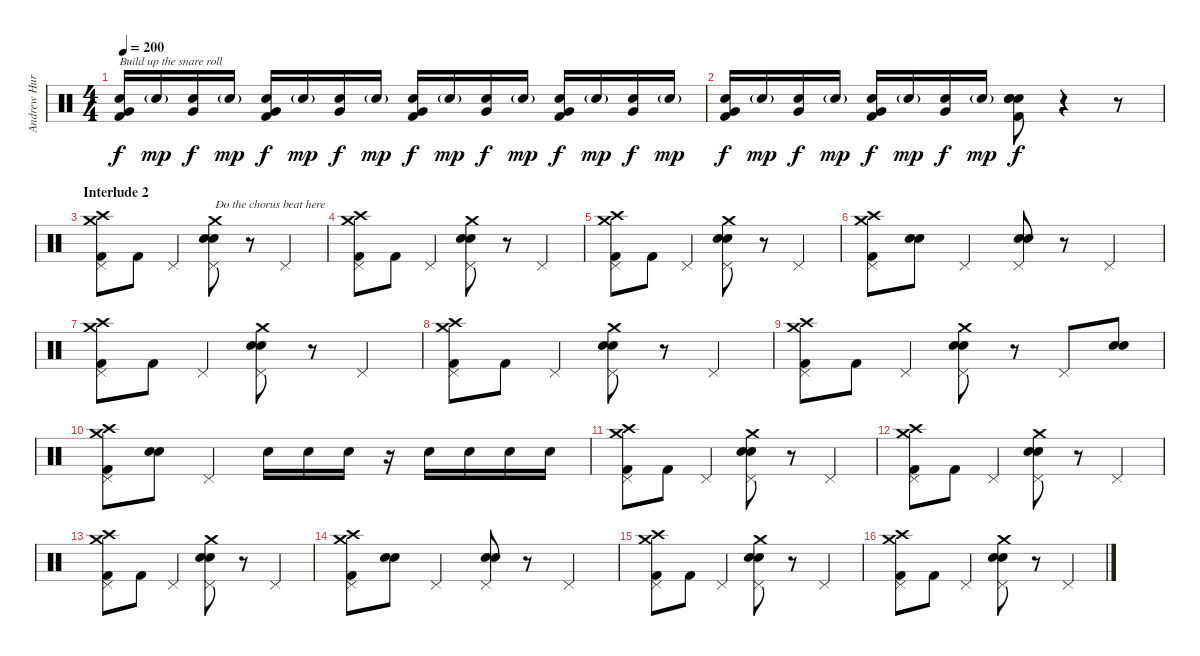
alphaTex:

\track ("Andrew Hurley (Drums)" "Andrew Hur") {instrument percussion}
\staff {score}
\articulation defaults
\ts (4 4)
\tempo 200
\clef neutral
\ks c
("Electric Snare (hit)" "Very Low Tom (hit)" "Kick (hit) 2").16{txt "Build up the snare roll" dy f volume 15} "Electric Snare (hit)"{g}.16{dy mp} ("Electric Snare (hit)" "Very Low Tom (hit)").16{dy f} "Electric Snare (hit)"{g}.16{dy mp} ("Electric Snare (hit)" "Very Low Tom (hit)" "Kick (hit) 2").16{dy f} "Electric Snare (hit)"{g}.16{dy mp} ("Electric Snare (hit)" "Very Low Tom (hit)").16{dy f} "Electric Snare (hit)"{g}.16{dy mp} ("Electric Snare (hit)" "Very Low Tom (hit)" "Kick (hit) 2").16{dy f} "Electric Snare (hit)"{g}.16{dy mp} ("Electric Snare (hit)" "Very Low Tom (hit)").16{dy f} "Electric Snare (hit)"{g}.16{dy mp} ("Electric Snare (hit)" "Very Low Tom (hit)" "Kick (hit) 2").16{dy f} "Electric Snare (hit)"{g}.16{dy mp} ("Electric Snare (hit)" "Very Low Tom (hit)").16{dy f} "Electric Snare (hit)"{g}.16{dy mp} |
("Electric Snare (hit)" "Very Low Tom (hit)" "Kick (hit) 2").16{dy f} "Electric Snare (hit)"{g}.16{dy mp} ("Electric Snare (hit)" "Very Low Tom (hit)").16{dy f} "Electric Snare (hit)"{g}.16{dy mp} ("Electric Snare (hit)" "Very Low Tom (hit)" "Kick (hit) 2").16{dy f} "Electric Snare (hit)"{g}.16{dy mp} ("Electric Snare (hit)" "Very Low Tom (hit)").16{dy f} "Electric Snare (hit)"{g}.16{dy mp} ("Hand Clap (hit)" "Electric Snare (hit)" "Snare (hit) 2" "Kick (hit) 2").8{dy f} r.4 r.8 |
\section ("" "Interlude 2")
("Kick (hit) 2" "Pedal Hi-Hat (hit)" "Crash high (hit)" "Crash medium (hit)").8 "Kick (hit) 2".8 "Pedal Hi-Hat (hit)".4 ("Hand Clap (hit)" "Electric Snare (hit)" "Pedal Hi-Hat (hit)" "Crash medium (hit)").8{txt "Do the chorus beat here"} r.8 "Pedal Hi-Hat (hit)".4 |
("Kick (hit) 2" "Pedal Hi-Hat (hit)" "Crash high (hit)" "Crash medium (hit)").8 "Kick (hit) 2".8 "Pedal Hi-Hat (hit)".4 ("Hand Clap (hit)" "Electric Snare (hit)" "Pedal Hi-Hat (hit)" "Crash medium (hit)").8 r.8 "Pedal Hi-Hat (hit)".4 |
("Kick (hit) 2" "Pedal Hi-Hat (hit)" "Crash high (hit)" "Crash medium (hit)").8 "Kick (hit) 2".8 "Pedal Hi-Hat (hit)".4 ("Hand Clap (hit)" "Electric Snare (hit)" "Pedal Hi-Hat (hit)" "Crash medium (hit)").8 r.8 "Pedal Hi-Hat (hit)".4 |
("Kick (hit) 2" "Pedal Hi-Hat (hit)" "Crash high (hit)" "Crash medium (hit)").8 ("Hand Clap (hit)" "Electric Snare (hit)").8 "Pedal Hi-Hat (hit)".4 ("Hand Clap (hit)" "Electric Snare (hit)" "Pedal Hi-Hat (hit)").8 r.8 "Pedal Hi-Hat (hit)".4 |
("Kick (hit) 2" "Pedal Hi-Hat (hit)" "Crash high (hit)" "Crash medium (hit)").8 "Kick (hit) 2".8 "Pedal Hi-Hat (hit)".4 ("Hand Clap (hit)" "Electric Snare (hit)" "Pedal Hi-Hat (hit)" "Crash medium (hit)").8 r.8 "Pedal Hi-Hat (hit)".4 |
("Kick (hit) 2" "Pedal Hi-Hat (hit)" "Crash high (hit)" "Crash medium (hit)").8 "Kick (hit) 2".8 "Pedal Hi-Hat (hit)".4 ("Hand Clap (hit)" "Electric Snare (hit)" "Pedal Hi-Hat (hit)" "Crash medium (hit)").8 r.8 "Pedal Hi-Hat (hit)".4 |
("Kick (hit) 2" "Pedal Hi-Hat (hit)" "Crash high (hit)" "Crash medium (hit)").8 "Kick (hit) 2".8 "Pedal Hi-Hat (hit)".4 ("Hand Clap (hit)" "Electric Snare (hit)" "Pedal Hi-Hat (hit)" "Crash medium (hit)").8 r.8 "Pedal Hi-Hat (hit)".8 ("Hand Clap (hit)" "Electric Snare (hit)").8 |
("Kick (hit) 2" "Pedal Hi-Hat (hit)" "Crash high (hit)" "Crash medium (hit)").8 ("Hand Clap (hit)" "Electric Snare (hit)").8 "Pedal Hi-Hat (hit)".4 "Electric Snare (hit)".16 "Electric Snare (hit)".16 "Electric Snare (hit)".16 r.16 "Electric Snare (hit)".16 "Electric Snare (hit)".16 "Electric Snare (hit)".16 "Electric Snare (hit)".16 |
("Kick (hit) 2" "Pedal Hi-Hat (hit)" "Crash high (hit)" "Crash medium (hit)").8 "Kick (hit) 2".8 "Pedal Hi-Hat (hit)".4 ("Hand Clap (hit)" "Electric Snare (hit)" "Pedal Hi-Hat (hit)" "Crash medium (hit)").8 r.8 "Pedal Hi-Hat (hit)".4 |
("Kick (hit) 2" "Pedal Hi-Hat (hit)" "Crash high (hit)" "Crash medium (hit)").8 "Kick (hit) 2".8 "Pedal Hi-Hat (hit)".4 ("Hand Clap (hit)" "Electric Snare (hit)" "Pedal Hi-Hat (hit)" "Crash medium (hit)").8 r.8 "Pedal Hi-Hat (hit)".4 |
("Kick (hit) 2" "Pedal Hi-Hat (hit)" "Crash high (hit)" "Crash medium (hit)").8 "Kick (hit) 2".8 "Pedal Hi-Hat (hit)".4 ("Hand Clap (hit)" "Electric Snare (hit)" "Pedal Hi-Hat (hit)" "Crash medium (hit)").8 r.8 "Pedal Hi-Hat (hit)".4 |
("Kick (hit) 2" "Pedal Hi-Hat (hit)" "Crash high (hit)" "Crash medium (hit)").8 ("Hand Clap (hit)" "Electric Snare (hit)").8 "Pedal Hi-Hat (hit)".4 ("Hand Clap (hit)" "Electric Snare (hit)" "Pedal Hi-Hat (hit)").8 r.8 "Pedal Hi-Hat (hit)".4 |
("Kick (hit) 2" "Pedal Hi-Hat (hit)" "Crash high (hit)" "Crash medium (hit)").8 "Kick (hit) 2".8 "Pedal Hi-Hat (hit)".4 ("Hand Clap (hit)" "Electric Snare (hit)" "Pedal Hi-Hat (hit)" "Crash medium (hit)").8 r.8 "Pedal Hi-Hat (hit)".4 |
("Kick (hit) 2" "Pedal Hi-Hat (hit)" "Crash high (hit)" "Crash medium (hit)").8 "Kick (hit) 2".8 "Pedal Hi-Hat (hit)".4 ("Hand Clap (hit)" "Electric Snare (hit)" "Pedal Hi-Hat (hit)" "Crash medium (hit)").8 r.8 "Pedal Hi-Hat (hit)".4
